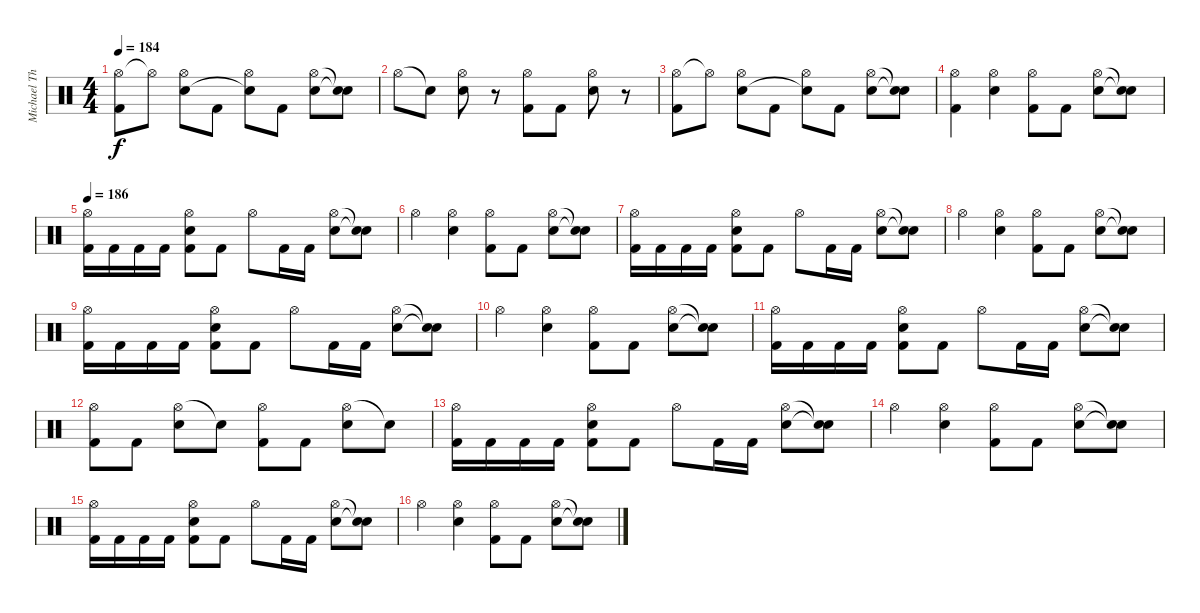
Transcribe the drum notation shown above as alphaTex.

\track ("Michael Thomas" "Michael Th") {instrument percussion}
\staff {score}
\articulation defaults
\ts (4 4)
\tempo 184
\clef neutral
\ks c
("Hi-Hat (open)" "Kick (hit) 2").8{dy f} "Hi-Hat (open)"{t}.8 ("Hi-Hat (open)" "Electric Snare (hit)").8 "Kick (hit) 2".8 ("Hi-Hat (open)" "Snare (hit)"{t}).8 "Kick (hit) 2".8 ("Hi-Hat (open)" "Electric Snare (hit)").8 ("Snare (hit)"{t} "Snare (hit)"{t}).8 |
"Hi-Hat (open)".8 "Snare (hit)"{t}.8 ("Hi-Hat (open)" "Electric Snare (hit)").8 r.8 ("Hi-Hat (open)" "Kick (hit) 2").8 "Kick (hit) 2".8 ("Hi-Hat (open)" "Electric Snare (hit)").8 r.8 |
("Hi-Hat (open)" "Kick (hit) 2").8 "Hi-Hat (open)"{t}.8 ("Hi-Hat (open)" "Electric Snare (hit)").8 "Kick (hit) 2".8 ("Hi-Hat (open)" "Snare (hit)"{t}).8 "Kick (hit) 2".8 ("Hi-Hat (open)" "Electric Snare (hit)").8 ("Snare (hit)"{t} "Snare (hit)"{t}).8 |
("Hi-Hat (open)" "Kick (hit) 2").4 ("Hi-Hat (open)" "Electric Snare (hit)").4 ("Hi-Hat (open)" "Kick (hit) 2").8 "Kick (hit) 2".8 ("Hi-Hat (open)" "Electric Snare (hit)").8 ("Snare (hit)"{t} "Snare (hit)"{t}).8 |
\tempo 186
("Hi-Hat (open)" "Kick (hit) 2").16 "Kick (hit) 2".16 "Kick (hit) 2".16 "Kick (hit) 2".16 ("Hi-Hat (open)" "Electric Snare (hit)" "Kick (hit) 2").8 "Kick (hit) 2".8 "Hi-Hat (open)".8 "Kick (hit) 2".16 "Kick (hit) 2".16 ("Hi-Hat (open)" "Electric Snare (hit)").8 ("Snare (hit)"{t} "Snare (hit)"{t}).8 |
"Hi-Hat (open)".4 ("Hi-Hat (open)" "Electric Snare (hit)").4 ("Hi-Hat (open)" "Kick (hit) 2").8 "Kick (hit) 2".8 ("Hi-Hat (open)" "Electric Snare (hit)").8 ("Snare (hit)"{t} "Snare (hit)"{t}).8 |
("Hi-Hat (open)" "Kick (hit) 2").16 "Kick (hit) 2".16 "Kick (hit) 2".16 "Kick (hit) 2".16 ("Hi-Hat (open)" "Electric Snare (hit)" "Kick (hit) 2").8 "Kick (hit) 2".8 "Hi-Hat (open)".8 "Kick (hit) 2".16 "Kick (hit) 2".16 ("Hi-Hat (open)" "Electric Snare (hit)").8 ("Snare (hit)"{t} "Snare (hit)"{t}).8 |
"Hi-Hat (open)".4 ("Hi-Hat (open)" "Electric Snare (hit)").4 ("Hi-Hat (open)" "Kick (hit) 2").8 "Kick (hit) 2".8 ("Hi-Hat (open)" "Electric Snare (hit)").8 ("Snare (hit)"{t} "Snare (hit)"{t}).8 |
("Hi-Hat (open)" "Kick (hit) 2").16 "Kick (hit) 2".16 "Kick (hit) 2".16 "Kick (hit) 2".16 ("Hi-Hat (open)" "Electric Snare (hit)" "Kick (hit) 2").8 "Kick (hit) 2".8 "Hi-Hat (open)".8 "Kick (hit) 2".16 "Kick (hit) 2".16 ("Hi-Hat (open)" "Electric Snare (hit)").8 ("Snare (hit)"{t} "Snare (hit)"{t}).8 |
"Hi-Hat (open)".4 ("Hi-Hat (open)" "Electric Snare (hit)").4 ("Hi-Hat (open)" "Kick (hit) 2").8 "Kick (hit) 2".8 ("Hi-Hat (open)" "Electric Snare (hit)").8 ("Snare (hit)"{t} "Snare (hit)"{t}).8 |
("Hi-Hat (open)" "Kick (hit) 2").16 "Kick (hit) 2".16 "Kick (hit) 2".16 "Kick (hit) 2".16 ("Hi-Hat (open)" "Electric Snare (hit)" "Kick (hit) 2").8 "Kick (hit) 2".8 "Hi-Hat (open)".8 "Kick (hit) 2".16 "Kick (hit) 2".16 ("Hi-Hat (open)" "Electric Snare (hit)").8 ("Snare (hit)"{t} "Snare (hit)"{t}).8 |
("Hi-Hat (open)" "Kick (hit) 2").8 "Kick (hit) 2".8 ("Hi-Hat (open)" "Electric Snare (hit)").8 "Snare (hit)"{t}.8 ("Hi-Hat (open)" "Kick (hit) 2").8 "Kick (hit) 2".8 ("Hi-Hat (open)" "Electric Snare (hit)").8 "Snare (hit)"{t}.8 |
("Hi-Hat (open)" "Kick (hit) 2").16 "Kick (hit) 2".16 "Kick (hit) 2".16 "Kick (hit) 2".16 ("Hi-Hat (open)" "Electric Snare (hit)" "Kick (hit) 2").8 "Kick (hit) 2".8 "Hi-Hat (open)".8 "Kick (hit) 2".16 "Kick (hit) 2".16 ("Hi-Hat (open)" "Electric Snare (hit)").8 ("Snare (hit)"{t} "Snare (hit)"{t}).8 |
"Hi-Hat (open)".4 ("Hi-Hat (open)" "Electric Snare (hit)").4 ("Hi-Hat (open)" "Kick (hit) 2").8 "Kick (hit) 2".8 ("Hi-Hat (open)" "Electric Snare (hit)").8 ("Snare (hit)"{t} "Snare (hit)"{t}).8 |
("Hi-Hat (open)" "Kick (hit) 2").16 "Kick (hit) 2".16 "Kick (hit) 2".16 "Kick (hit) 2".16 ("Hi-Hat (open)" "Electric Snare (hit)" "Kick (hit) 2").8 "Kick (hit) 2".8 "Hi-Hat (open)".8 "Kick (hit) 2".16 "Kick (hit) 2".16 ("Hi-Hat (open)" "Electric Snare (hit)").8 ("Snare (hit)"{t} "Snare (hit)"{t}).8 |
"Hi-Hat (open)".4 ("Hi-Hat (open)" "Electric Snare (hit)").4 ("Hi-Hat (open)" "Kick (hit) 2").8 "Kick (hit) 2".8 ("Hi-Hat (open)" "Electric Snare (hit)").8 ("Snare (hit)"{t} "Snare (hit)"{t}).8
